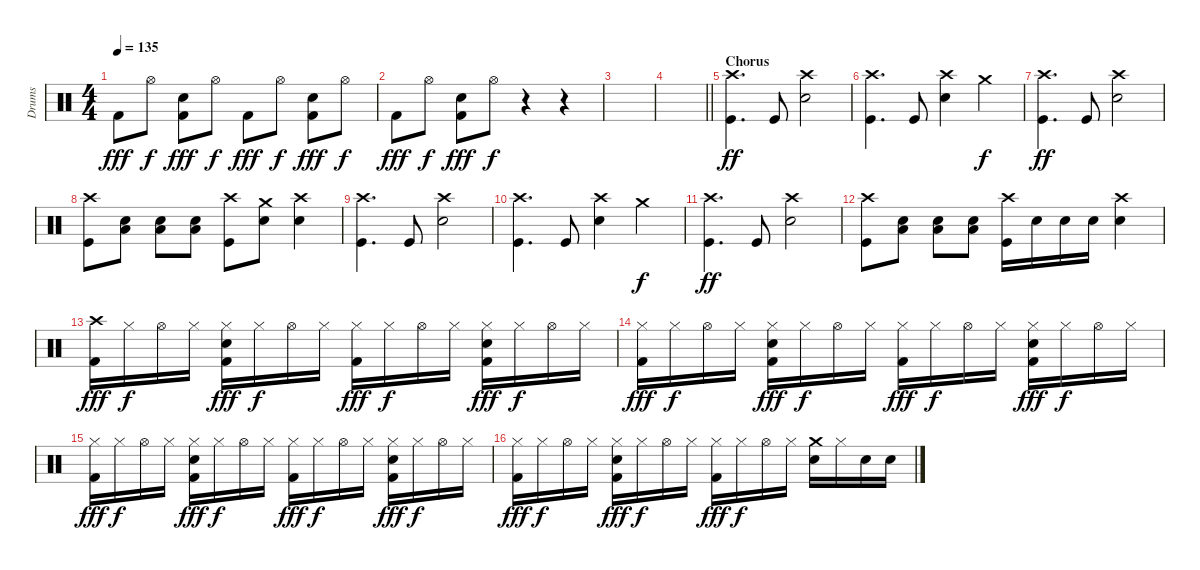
\track ("Drums" "Drums") {instrument percussion}
\staff {score}
\articulation defaults
\ts (4 4)
\tempo 135
\clef neutral
\ks c "Kick (hit) 2".8{dy fff} "Hi-Hat (open)".8{dy f}
("Kick (hit) 2" "Snare (hit) 2").8{dy fff} "Hi-Hat (open)".8{dy f} "Kick (hit) 2".8{dy fff} "Hi-Hat (open)".8{dy f} ("Kick (hit) 2" "Snare (hit) 2").8{dy fff} "Hi-Hat (open)".8{dy f} |
"Kick (hit) 2".8{dy fff} "Hi-Hat (open)".8{dy f} ("Kick (hit) 2" "Snare (hit) 2").8{dy fff} "Hi-Hat (open)".8{dy f} r.4 r.4 |
|
\barLineRight lightlight
|
\section ("" "Chorus")
("Kick (hit)" "Crash high (hit)").4{d dy ff} "Kick (hit)".8 ("Crash high (hit)" "Snare (hit) 2").2 |
("Kick (hit)" "Crash high (hit)").4{d} "Kick (hit)".8 ("Crash high (hit)" "Snare (hit) 2").4 "Crash medium (hit)".4{dy f} |
("Kick (hit)" "Crash high (hit)").4{d dy ff} "Kick (hit)".8 ("Crash high (hit)" "Snare (hit) 2").2 |
("Kick (hit)" "Crash high (hit)").8 ("Low Tom (hit)" "Snare (hit) 2").8 ("Low Tom (hit)" "Snare (hit) 2").8 ("Low Tom (hit)" "Snare (hit) 2").8 ("Kick (hit)" "Crash high (hit)").8 ("Snare (hit) 2" "Crash medium (hit)").8 ("Snare (hit) 2" "Crash high (hit)").4 |
("Kick (hit)" "Crash high (hit)").4{d} "Kick (hit)".8 ("Crash high (hit)" "Snare (hit) 2").2 |
("Kick (hit)" "Crash high (hit)").4{d} "Kick (hit)".8 ("Crash high (hit)" "Snare (hit) 2").4 "Crash medium (hit)".4{dy f} |
("Kick (hit)" "Crash high (hit)").4{d dy ff} "Kick (hit)".8 ("Crash high (hit)" "Snare (hit) 2").2 |
("Kick (hit)" "Crash high (hit)").8 ("Low Tom (hit)" "Snare (hit) 2").8 ("Low Tom (hit)" "Snare (hit) 2").8 ("Low Tom (hit)" "Snare (hit) 2").8 ("Kick (hit)" "Crash high (hit)").16 "Snare (hit) 2".16 "Snare (hit) 2".16 "Snare (hit) 2".16 ("Snare (hit) 2" "Crash high (hit)").4 |
("Kick (hit) 2" "Crash high (hit)").16{dy fff} "Hi-Hat (closed)".16{dy f} "Hi-Hat (open)".16 "Hi-Hat (closed)".16 ("Kick (hit) 2" "Snare (hit) 2" "Hi-Hat (closed)").16{dy fff} "Hi-Hat (closed)".16{dy f} "Hi-Hat (open)".16 "Hi-Hat (closed)".16 ("Kick (hit) 2" "Hi-Hat (closed)").16{dy fff} "Hi-Hat (closed)".16{dy f} "Hi-Hat (open)".16 "Hi-Hat (closed)".16 ("Kick (hit) 2" "Snare (hit) 2" "Hi-Hat (closed)").16{dy fff} "Hi-Hat (closed)".16{dy f} "Hi-Hat (open)".16 "Hi-Hat (closed)".16 |
("Kick (hit) 2" "Hi-Hat (closed)").16{dy fff} "Hi-Hat (closed)".16{dy f} "Hi-Hat (open)".16 "Hi-Hat (closed)".16 ("Kick (hit) 2" "Snare (hit) 2" "Hi-Hat (closed)").16{dy fff} "Hi-Hat (closed)".16{dy f} "Hi-Hat (open)".16 "Hi-Hat (closed)".16 ("Kick (hit) 2" "Hi-Hat (closed)").16{dy fff} "Hi-Hat (closed)".16{dy f} "Hi-Hat (open)".16 "Hi-Hat (closed)".16 ("Kick (hit) 2" "Snare (hit) 2" "Hi-Hat (closed)").16{dy fff} "Hi-Hat (closed)".16{dy f} "Hi-Hat (open)".16 "Hi-Hat (closed)".16 |
("Kick (hit) 2" "Hi-Hat (closed)").16{dy fff} "Hi-Hat (closed)".16{dy f} "Hi-Hat (open)".16 "Hi-Hat (closed)".16 ("Kick (hit) 2" "Snare (hit) 2" "Hi-Hat (closed)").16{dy fff} "Hi-Hat (closed)".16{dy f} "Hi-Hat (open)".16 "Hi-Hat (closed)".16 ("Kick (hit) 2" "Hi-Hat (closed)").16{dy fff} "Hi-Hat (closed)".16{dy f} "Hi-Hat (open)".16 "Hi-Hat (closed)".16 ("Kick (hit) 2" "Snare (hit) 2" "Hi-Hat (closed)").16{dy fff} "Hi-Hat (closed)".16{dy f} "Hi-Hat (open)".16 "Hi-Hat (closed)".16 |
("Kick (hit) 2" "Hi-Hat (closed)").16{dy fff} "Hi-Hat (closed)".16{dy f} "Hi-Hat (open)".16 "Hi-Hat (closed)".16 ("Kick (hit) 2" "Snare (hit) 2" "Hi-Hat (closed)").16{dy fff} "Hi-Hat (closed)".16{dy f} "Hi-Hat (open)".16 "Hi-Hat (closed)".16 ("Kick (hit) 2" "Hi-Hat (closed)").16{dy fff} "Hi-Hat (closed)".16{dy f} "Hi-Hat (open)".16 "Hi-Hat (closed)".16 ("Snare (hit) 2" "Crash medium (hit)").16 "Hi-Hat (closed)".16 "Snare (hit) 2".16 "Snare (hit) 2".16
